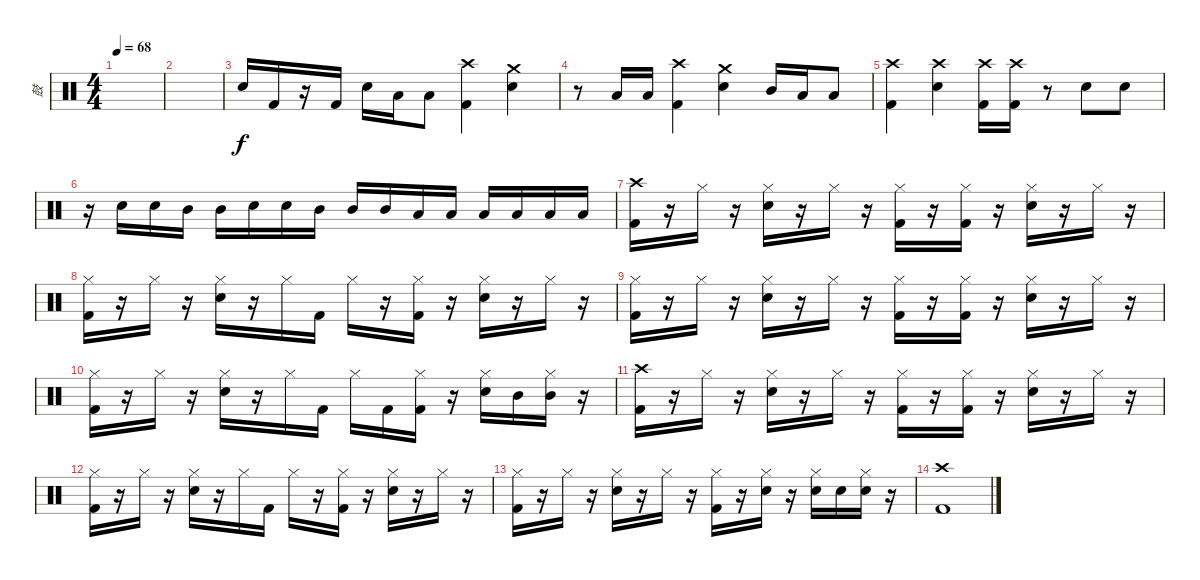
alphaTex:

\track ("鼓" "鼓") {instrument percussion}
\staff {score}
\articulation defaults
\ts (4 4)
\tempo 68
\clef neutral
\ks c
|
|
"Electric Snare (hit)".16 "Kick (hit) 2".16 r.16 "Kick (hit) 2".16 "Electric Snare (hit)".16 "Low Tom (hit)".16 "Low Tom (hit)".8 ("Crash high (hit)" "Kick (hit) 2").4 ("Crash medium (hit)" "Electric Snare (hit)").4 |
r.8 "Low Tom (hit)".16 "Low Tom (hit)".16 ("Crash high (hit)" "Kick (hit) 2").4 ("Crash medium (hit)" "Electric Snare (hit)").4 "Mid Tom (hit)".16 "Low Tom (hit)".16 "Low Tom (hit)".8 |
("Crash high (hit)" "Kick (hit) 2").4 ("Crash high (hit)" "Electric Snare (hit)").4 ("Crash high (hit)" "Kick (hit) 2").16 ("Crash high (hit)" "Kick (hit) 2").16 r.8 "Electric Snare (hit)".8 "Electric Snare (hit)".8 |
r.16 "Electric Snare (hit)".16 "Electric Snare (hit)".16 "Mid Tom (hit)".16 "Mid Tom (hit)".16 "Electric Snare (hit)".16 "Electric Snare (hit)".16 "Mid Tom (hit)".16 "Mid Tom (hit)".16 "Mid Tom (hit)".16 "Low Tom (hit)".16 "Low Tom (hit)".16 "Low Tom (hit)".16 "Low Floor Tom (hit)".16 "Low Floor Tom (hit)".16 "Low Floor Tom (hit)".16 |
("Crash high (hit)" "Kick (hit) 2").16 r.16 "Hi-Hat (closed)".16 r.16 ("Hi-Hat (closed)" "Electric Snare (hit)").16 r.16 "Hi-Hat (closed)".16 r.16 ("Hi-Hat (closed)" "Kick (hit) 2").16 r.16 ("Hi-Hat (closed)" "Kick (hit) 2").16 r.16 ("Hi-Hat (closed)" "Electric Snare (hit)").16 r.16 "Hi-Hat (closed)".16 r.16 |
("Hi-Hat (closed)" "Kick (hit) 2").16 r.16 "Hi-Hat (closed)".16 r.16 ("Hi-Hat (closed)" "Electric Snare (hit)").16 r.16 "Hi-Hat (closed)".16 "Kick (hit) 2".16 "Hi-Hat (closed)".16 r.16 ("Hi-Hat (closed)" "Kick (hit) 2").16 r.16 ("Hi-Hat (closed)" "Electric Snare (hit)").16 r.16 "Hi-Hat (closed)".16 r.16 |
("Hi-Hat (closed)" "Kick (hit) 2").16 r.16 "Hi-Hat (closed)".16 r.16 ("Hi-Hat (closed)" "Electric Snare (hit)").16 r.16 "Hi-Hat (closed)".16 r.16 ("Hi-Hat (closed)" "Kick (hit) 2").16 r.16 ("Hi-Hat (closed)" "Kick (hit) 2").16 r.16 ("Hi-Hat (closed)" "Electric Snare (hit)").16 r.16 "Hi-Hat (closed)".16 r.16 |
("Hi-Hat (closed)" "Kick (hit) 2").16 r.16 "Hi-Hat (closed)".16 r.16 ("Hi-Hat (closed)" "Electric Snare (hit)").16 r.16 "Hi-Hat (closed)".16 "Kick (hit) 2".16 "Hi-Hat (closed)".16 "Kick (hit) 2".16 ("Hi-Hat (closed)" "Kick (hit) 2").16 r.16 ("Hi-Hat (closed)" "Electric Snare (hit)").16 "Mid Tom (hit)".16 ("Hi-Hat (closed)" "Mid Tom (hit)").16 r.16 |
("Crash high (hit)" "Kick (hit) 2").16 r.16 "Hi-Hat (closed)".16 r.16 ("Hi-Hat (closed)" "Electric Snare (hit)").16 r.16 "Hi-Hat (closed)".16 r.16 ("Hi-Hat (closed)" "Kick (hit) 2").16 r.16 ("Hi-Hat (closed)" "Kick (hit) 2").16 r.16 ("Hi-Hat (closed)" "Electric Snare (hit)").16 r.16 "Hi-Hat (closed)".16 r.16 |
("Hi-Hat (closed)" "Kick (hit) 2").16 r.16 "Hi-Hat (closed)".16 r.16 ("Hi-Hat (closed)" "Electric Snare (hit)").16 r.16 "Hi-Hat (closed)".16 "Kick (hit) 2".16 "Hi-Hat (closed)".16 r.16 ("Hi-Hat (closed)" "Kick (hit) 2").16 r.16 ("Hi-Hat (closed)" "Electric Snare (hit)").16 r.16 "Hi-Hat (closed)".16 r.16 |
("Hi-Hat (closed)" "Kick (hit) 2").16 r.16 "Hi-Hat (closed)".16 r.16 ("Hi-Hat (closed)" "Electric Snare (hit)").16 r.16 "Hi-Hat (closed)".16 r.16 ("Hi-Hat (closed)" "Kick (hit) 2").16 r.16 ("Hi-Hat (closed)" "Electric Snare (hit)").16 r.16 ("Hi-Hat (closed)" "Electric Snare (hit)").16 "Electric Snare (hit)".16 ("Hi-Hat (closed)" "Electric Snare (hit)").16 r.16 |
("Crash high (hit)" "Kick (hit) 2").1
